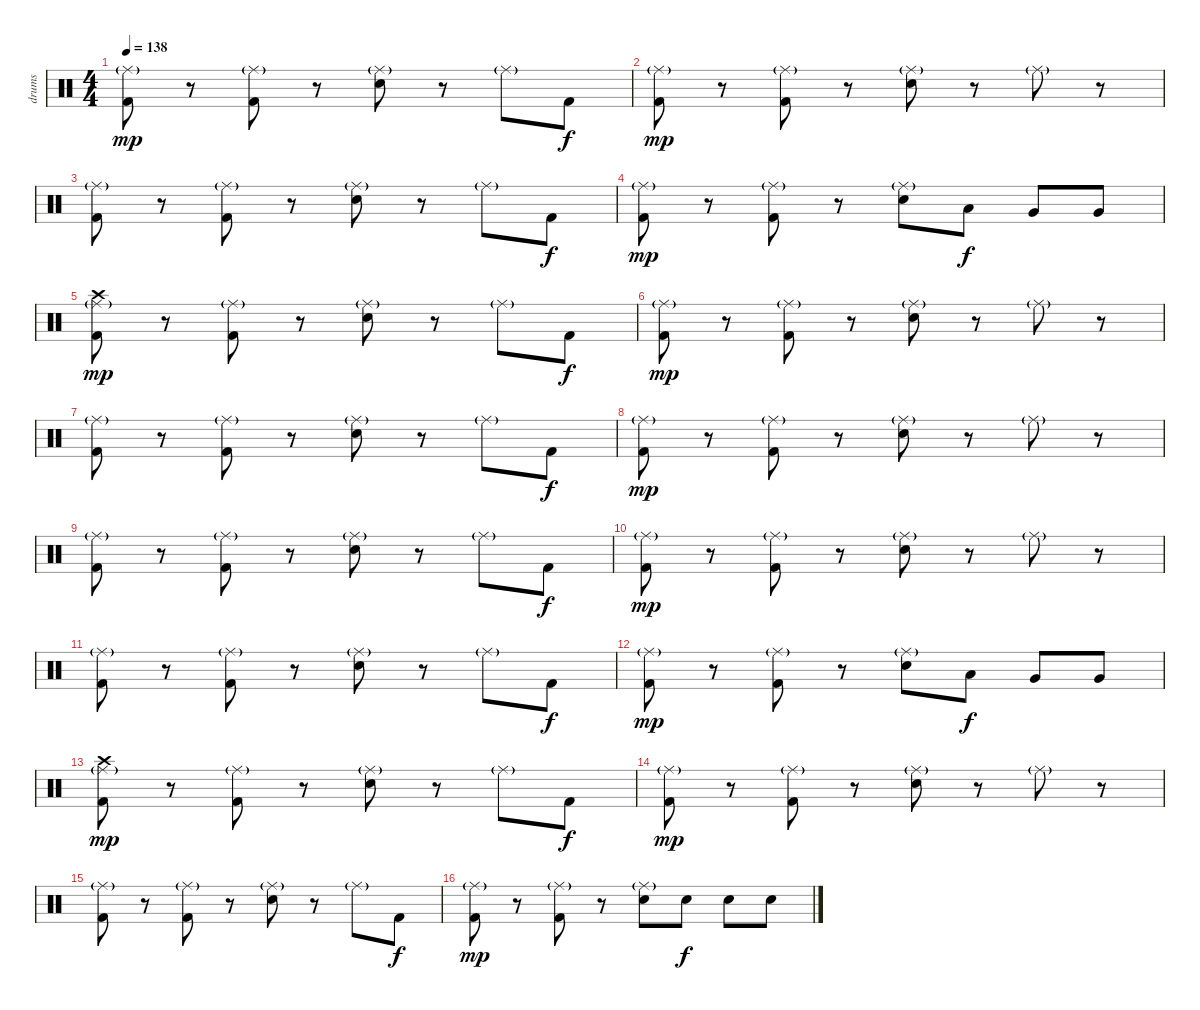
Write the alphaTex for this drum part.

\track ("drums" "drums") {instrument percussion}
\staff {score}
\articulation defaults
\ts (4 4)
\tempo 138
\clef neutral
\ks c
("Kick (hit) 2" "Ride (middle)"{g}).8{dy mp} r.8 ("Kick (hit) 2" "Ride (middle)"{g}).8 r.8 ("Electric Snare (hit)" "Ride (middle)"{g}).8 r.8 "Ride (middle)"{g}.8 "Kick (hit) 2".8{dy f} |
("Kick (hit) 2" "Ride (middle)"{g}).8{dy mp} r.8 ("Kick (hit) 2" "Ride (middle)"{g}).8 r.8 ("Electric Snare (hit)" "Ride (middle)"{g}).8 r.8 "Ride (middle)"{g}.8 r.8 |
("Kick (hit) 2" "Ride (middle)"{g}).8 r.8 ("Kick (hit) 2" "Ride (middle)"{g}).8 r.8 ("Electric Snare (hit)" "Ride (middle)"{g}).8 r.8 "Ride (middle)"{g}.8 "Kick (hit) 2".8{dy f} |
("Kick (hit) 2" "Ride (middle)"{g}).8{dy mp} r.8 ("Kick (hit) 2" "Ride (middle)"{g}).8 r.8 ("Electric Snare (hit)" "Ride (middle)"{g}).8 "Low Tom (hit)".8{dy f} "Very Low Tom (hit)".8 "Very Low Tom (hit)".8 |
("Kick (hit) 2" "Ride (middle)"{g} "Crash high (hit)").8{dy mp} r.8 ("Kick (hit) 2" "Ride (middle)"{g}).8 r.8 ("Electric Snare (hit)" "Ride (middle)"{g}).8 r.8 "Ride (middle)"{g}.8 "Kick (hit) 2".8{dy f} |
("Kick (hit) 2" "Ride (middle)"{g}).8{dy mp} r.8 ("Kick (hit) 2" "Ride (middle)"{g}).8 r.8 ("Electric Snare (hit)" "Ride (middle)"{g}).8 r.8 "Ride (middle)"{g}.8 r.8 |
("Kick (hit) 2" "Ride (middle)"{g}).8 r.8 ("Kick (hit) 2" "Ride (middle)"{g}).8 r.8 ("Electric Snare (hit)" "Ride (middle)"{g}).8 r.8 "Ride (middle)"{g}.8 "Kick (hit) 2".8{dy f} |
("Kick (hit) 2" "Ride (middle)"{g}).8{dy mp} r.8 ("Kick (hit) 2" "Ride (middle)"{g}).8 r.8 ("Electric Snare (hit)" "Ride (middle)"{g}).8 r.8 "Ride (middle)"{g}.8 r.8 |
("Kick (hit) 2" "Ride (middle)"{g}).8 r.8 ("Kick (hit) 2" "Ride (middle)"{g}).8 r.8 ("Electric Snare (hit)" "Ride (middle)"{g}).8 r.8 "Ride (middle)"{g}.8 "Kick (hit) 2".8{dy f} |
("Kick (hit) 2" "Ride (middle)"{g}).8{dy mp} r.8 ("Kick (hit) 2" "Ride (middle)"{g}).8 r.8 ("Electric Snare (hit)" "Ride (middle)"{g}).8 r.8 "Ride (middle)"{g}.8 r.8 |
("Kick (hit) 2" "Ride (middle)"{g}).8 r.8 ("Kick (hit) 2" "Ride (middle)"{g}).8 r.8 ("Electric Snare (hit)" "Ride (middle)"{g}).8 r.8 "Ride (middle)"{g}.8 "Kick (hit) 2".8{dy f} |
("Kick (hit) 2" "Ride (middle)"{g}).8{dy mp} r.8 ("Kick (hit) 2" "Ride (middle)"{g}).8 r.8 ("Electric Snare (hit)" "Ride (middle)"{g}).8 "Low Tom (hit)".8{dy f} "Very Low Tom (hit)".8 "Very Low Tom (hit)".8 |
("Kick (hit) 2" "Ride (middle)"{g} "Crash high (hit)").8{dy mp} r.8 ("Kick (hit) 2" "Ride (middle)"{g}).8 r.8 ("Electric Snare (hit)" "Ride (middle)"{g}).8 r.8 "Ride (middle)"{g}.8 "Kick (hit) 2".8{dy f} |
("Kick (hit) 2" "Ride (middle)"{g}).8{dy mp} r.8 ("Kick (hit) 2" "Ride (middle)"{g}).8 r.8 ("Electric Snare (hit)" "Ride (middle)"{g}).8 r.8 "Ride (middle)"{g}.8 r.8 |
("Kick (hit) 2" "Ride (middle)"{g}).8 r.8 ("Kick (hit) 2" "Ride (middle)"{g}).8 r.8 ("Electric Snare (hit)" "Ride (middle)"{g}).8 r.8 "Ride (middle)"{g}.8 "Kick (hit) 2".8{dy f} |
("Kick (hit) 2" "Ride (middle)"{g}).8{dy mp} r.8 ("Kick (hit) 2" "Ride (middle)"{g}).8 r.8 ("Electric Snare (hit)" "Ride (middle)"{g}).8 "Electric Snare (hit)".8{dy f} "Electric Snare (hit)".8 "Electric Snare (hit)".8
